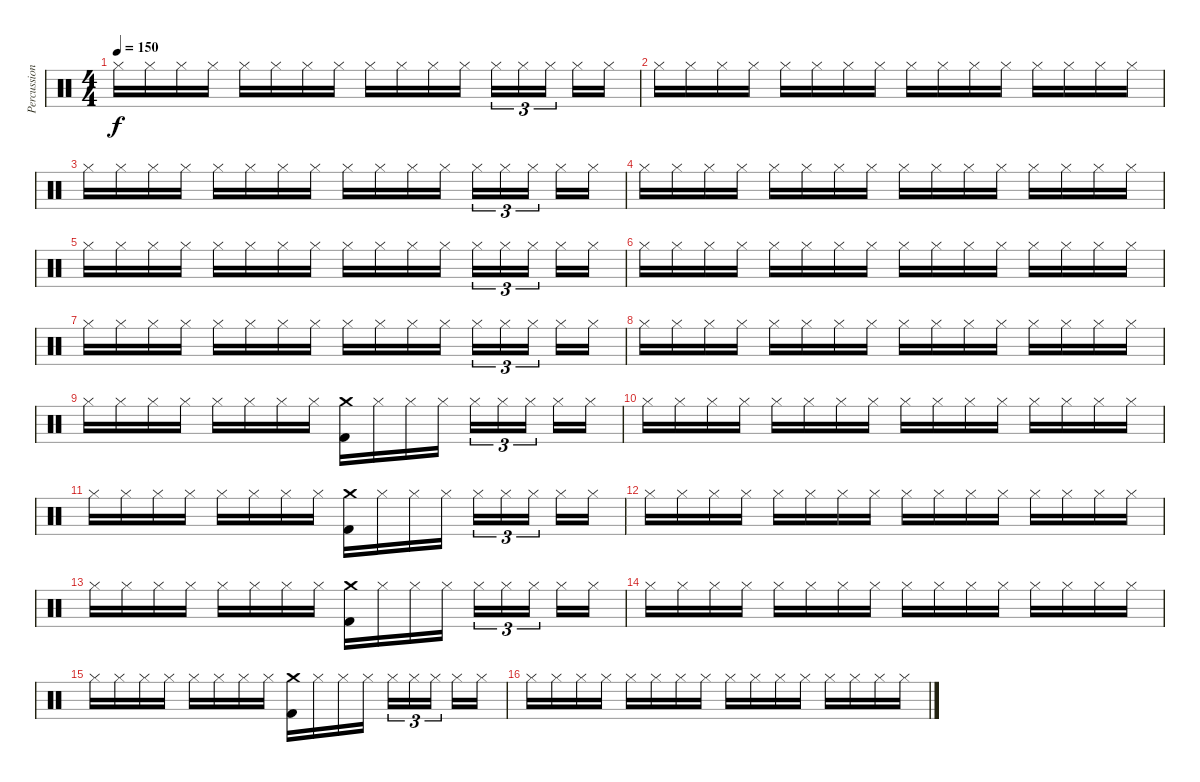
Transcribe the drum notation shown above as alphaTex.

\track ("Percussioni" "Percussion") {instrument percussion}
\staff {score}
\articulation defaults
\ts (4 4)
\tempo 150
\clef neutral
\ks c "Hi-Hat (closed)".16{dy f} "Hi-Hat (closed)".16 "Hi-Hat (closed)".16 "Hi-Hat (closed)".16 "Hi-Hat (closed)".16 "Hi-Hat (closed)".16 "Hi-Hat (closed)".16 "Hi-Hat (closed)".16 "Hi-Hat (closed)".16 "Hi-Hat (closed)".16 "Hi-Hat (closed)".16 "Hi-Hat (closed)".16 "Hi-Hat (closed)".16{tu (3 2)} "Hi-Hat (closed)".16{tu (3 2)} "Hi-Hat (closed)".16{tu (3 2)} "Hi-Hat (closed)".16 "Hi-Hat (closed)".16
|
"Hi-Hat (closed)".16 "Hi-Hat (closed)".16 "Hi-Hat (closed)".16 "Hi-Hat (closed)".16 "Hi-Hat (closed)".16 "Hi-Hat (closed)".16 "Hi-Hat (closed)".16 "Hi-Hat (closed)".16 "Hi-Hat (closed)".16 "Hi-Hat (closed)".16 "Hi-Hat (closed)".16 "Hi-Hat (closed)".16 "Hi-Hat (closed)".16 "Hi-Hat (closed)".16 "Hi-Hat (closed)".16 "Hi-Hat (closed)".16 |
"Hi-Hat (closed)".16 "Hi-Hat (closed)".16 "Hi-Hat (closed)".16 "Hi-Hat (closed)".16 "Hi-Hat (closed)".16 "Hi-Hat (closed)".16 "Hi-Hat (closed)".16 "Hi-Hat (closed)".16 "Hi-Hat (closed)".16 "Hi-Hat (closed)".16 "Hi-Hat (closed)".16 "Hi-Hat (closed)".16 "Hi-Hat (closed)".16{tu (3 2)} "Hi-Hat (closed)".16{tu (3 2)} "Hi-Hat (closed)".16{tu (3 2)} "Hi-Hat (closed)".16 "Hi-Hat (closed)".16 |
"Hi-Hat (closed)".16 "Hi-Hat (closed)".16 "Hi-Hat (closed)".16 "Hi-Hat (closed)".16 "Hi-Hat (closed)".16 "Hi-Hat (closed)".16 "Hi-Hat (closed)".16 "Hi-Hat (closed)".16 "Hi-Hat (closed)".16 "Hi-Hat (closed)".16 "Hi-Hat (closed)".16 "Hi-Hat (closed)".16 "Hi-Hat (closed)".16 "Hi-Hat (closed)".16 "Hi-Hat (closed)".16 "Hi-Hat (closed)".16 |
"Hi-Hat (closed)".16 "Hi-Hat (closed)".16 "Hi-Hat (closed)".16 "Hi-Hat (closed)".16 "Hi-Hat (closed)".16 "Hi-Hat (closed)".16 "Hi-Hat (closed)".16 "Hi-Hat (closed)".16 "Hi-Hat (closed)".16 "Hi-Hat (closed)".16 "Hi-Hat (closed)".16 "Hi-Hat (closed)".16 "Hi-Hat (closed)".16{tu (3 2)} "Hi-Hat (closed)".16{tu (3 2)} "Hi-Hat (closed)".16{tu (3 2)} "Hi-Hat (closed)".16 "Hi-Hat (closed)".16 |
"Hi-Hat (closed)".16 "Hi-Hat (closed)".16 "Hi-Hat (closed)".16 "Hi-Hat (closed)".16 "Hi-Hat (closed)".16 "Hi-Hat (closed)".16 "Hi-Hat (closed)".16 "Hi-Hat (closed)".16 "Hi-Hat (closed)".16 "Hi-Hat (closed)".16 "Hi-Hat (closed)".16 "Hi-Hat (closed)".16 "Hi-Hat (closed)".16 "Hi-Hat (closed)".16 "Hi-Hat (closed)".16 "Hi-Hat (closed)".16 |
"Hi-Hat (closed)".16 "Hi-Hat (closed)".16 "Hi-Hat (closed)".16 "Hi-Hat (closed)".16 "Hi-Hat (closed)".16 "Hi-Hat (closed)".16 "Hi-Hat (closed)".16 "Hi-Hat (closed)".16 "Hi-Hat (closed)".16 "Hi-Hat (closed)".16 "Hi-Hat (closed)".16 "Hi-Hat (closed)".16 "Hi-Hat (closed)".16{tu (3 2)} "Hi-Hat (closed)".16{tu (3 2)} "Hi-Hat (closed)".16{tu (3 2)} "Hi-Hat (closed)".16 "Hi-Hat (closed)".16 |
"Hi-Hat (closed)".16 "Hi-Hat (closed)".16 "Hi-Hat (closed)".16 "Hi-Hat (closed)".16 "Hi-Hat (closed)".16 "Hi-Hat (closed)".16 "Hi-Hat (closed)".16 "Hi-Hat (closed)".16 "Hi-Hat (closed)".16 "Hi-Hat (closed)".16 "Hi-Hat (closed)".16 "Hi-Hat (closed)".16 "Hi-Hat (closed)".16 "Hi-Hat (closed)".16 "Hi-Hat (closed)".16 "Hi-Hat (closed)".16 |
"Hi-Hat (closed)".16 "Hi-Hat (closed)".16 "Hi-Hat (closed)".16 "Hi-Hat (closed)".16 "Hi-Hat (closed)".16 "Hi-Hat (closed)".16 "Hi-Hat (closed)".16 "Hi-Hat (closed)".16 ("Crash medium (hit)" "Kick (hit) 2").16 "Hi-Hat (closed)".16 "Hi-Hat (closed)".16 "Hi-Hat (closed)".16 "Hi-Hat (closed)".16{tu (3 2)} "Hi-Hat (closed)".16{tu (3 2)} "Hi-Hat (closed)".16{tu (3 2)} "Hi-Hat (closed)".16 "Hi-Hat (closed)".16 |
"Hi-Hat (closed)".16 "Hi-Hat (closed)".16 "Hi-Hat (closed)".16 "Hi-Hat (closed)".16 "Hi-Hat (closed)".16 "Hi-Hat (closed)".16 "Hi-Hat (closed)".16 "Hi-Hat (closed)".16 "Hi-Hat (closed)".16 "Hi-Hat (closed)".16 "Hi-Hat (closed)".16 "Hi-Hat (closed)".16 "Hi-Hat (closed)".16 "Hi-Hat (closed)".16 "Hi-Hat (closed)".16 "Hi-Hat (closed)".16 |
"Hi-Hat (closed)".16 "Hi-Hat (closed)".16 "Hi-Hat (closed)".16 "Hi-Hat (closed)".16 "Hi-Hat (closed)".16 "Hi-Hat (closed)".16 "Hi-Hat (closed)".16 "Hi-Hat (closed)".16 ("Crash medium (hit)" "Kick (hit) 2").16 "Hi-Hat (closed)".16 "Hi-Hat (closed)".16 "Hi-Hat (closed)".16 "Hi-Hat (closed)".16{tu (3 2)} "Hi-Hat (closed)".16{tu (3 2)} "Hi-Hat (closed)".16{tu (3 2)} "Hi-Hat (closed)".16 "Hi-Hat (closed)".16 |
"Hi-Hat (closed)".16 "Hi-Hat (closed)".16 "Hi-Hat (closed)".16 "Hi-Hat (closed)".16 "Hi-Hat (closed)".16 "Hi-Hat (closed)".16 "Hi-Hat (closed)".16 "Hi-Hat (closed)".16 "Hi-Hat (closed)".16 "Hi-Hat (closed)".16 "Hi-Hat (closed)".16 "Hi-Hat (closed)".16 "Hi-Hat (closed)".16 "Hi-Hat (closed)".16 "Hi-Hat (closed)".16 "Hi-Hat (closed)".16 |
"Hi-Hat (closed)".16 "Hi-Hat (closed)".16 "Hi-Hat (closed)".16 "Hi-Hat (closed)".16 "Hi-Hat (closed)".16 "Hi-Hat (closed)".16 "Hi-Hat (closed)".16 "Hi-Hat (closed)".16 ("Crash medium (hit)" "Kick (hit) 2").16 "Hi-Hat (closed)".16 "Hi-Hat (closed)".16 "Hi-Hat (closed)".16 "Hi-Hat (closed)".16{tu (3 2)} "Hi-Hat (closed)".16{tu (3 2)} "Hi-Hat (closed)".16{tu (3 2)} "Hi-Hat (closed)".16 "Hi-Hat (closed)".16 |
"Hi-Hat (closed)".16 "Hi-Hat (closed)".16 "Hi-Hat (closed)".16 "Hi-Hat (closed)".16 "Hi-Hat (closed)".16 "Hi-Hat (closed)".16 "Hi-Hat (closed)".16 "Hi-Hat (closed)".16 "Hi-Hat (closed)".16 "Hi-Hat (closed)".16 "Hi-Hat (closed)".16 "Hi-Hat (closed)".16 "Hi-Hat (closed)".16 "Hi-Hat (closed)".16 "Hi-Hat (closed)".16 "Hi-Hat (closed)".16 |
"Hi-Hat (closed)".16 "Hi-Hat (closed)".16 "Hi-Hat (closed)".16 "Hi-Hat (closed)".16 "Hi-Hat (closed)".16 "Hi-Hat (closed)".16 "Hi-Hat (closed)".16 "Hi-Hat (closed)".16 ("Crash medium (hit)" "Kick (hit) 2").16 "Hi-Hat (closed)".16 "Hi-Hat (closed)".16 "Hi-Hat (closed)".16 "Hi-Hat (closed)".16{tu (3 2)} "Hi-Hat (closed)".16{tu (3 2)} "Hi-Hat (closed)".16{tu (3 2)} "Hi-Hat (closed)".16 "Hi-Hat (closed)".16 |
"Hi-Hat (closed)".16 "Hi-Hat (closed)".16 "Hi-Hat (closed)".16 "Hi-Hat (closed)".16 "Hi-Hat (closed)".16 "Hi-Hat (closed)".16 "Hi-Hat (closed)".16 "Hi-Hat (closed)".16 "Hi-Hat (closed)".16 "Hi-Hat (closed)".16 "Hi-Hat (closed)".16 "Hi-Hat (closed)".16 "Hi-Hat (closed)".16 "Hi-Hat (closed)".16 "Hi-Hat (closed)".16 "Hi-Hat (closed)".16
